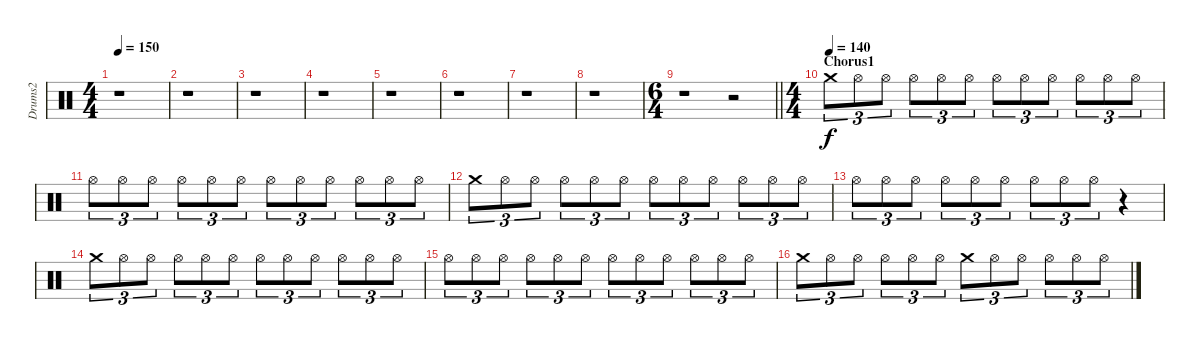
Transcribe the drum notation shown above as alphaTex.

\track ("Drums2" "Drums2") {instrument percussion}
\staff {score}
\articulation defaults
\ts (4 4)
\tempo 150
\clef neutral
\ks c
r.1{dy f} |
r.1 |
r.1 |
r.1 |
r.1 |
r.1 |
r.1 |
r.1 |
\ts (6 4)
\barLineRight lightlight
r.1 r.2 |
\ts (4 4)
\section ("" "Chorus1")
\tempo (140)
"Crash medium (hit)".8{tu (3 2)} "Hi-Hat (open)".8{tu (3 2)} "Hi-Hat (open)".8{tu (3 2)} "Hi-Hat (open)".8{tu (3 2)} "Hi-Hat (open)".8{tu (3 2)} "Hi-Hat (open)".8{tu (3 2)} "Hi-Hat (open)".8{tu (3 2)} "Hi-Hat (open)".8{tu (3 2)} "Hi-Hat (open)".8{tu (3 2)} "Hi-Hat (open)".8{tu (3 2)} "Hi-Hat (open)".8{tu (3 2)} "Hi-Hat (open)".8{tu (3 2)} |
"Hi-Hat (open)".8{tu (3 2)} "Hi-Hat (open)".8{tu (3 2)} "Hi-Hat (open)".8{tu (3 2)} "Hi-Hat (open)".8{tu (3 2)} "Hi-Hat (open)".8{tu (3 2)} "Hi-Hat (open)".8{tu (3 2)} "Hi-Hat (open)".8{tu (3 2)} "Hi-Hat (open)".8{tu (3 2)} "Hi-Hat (open)".8{tu (3 2)} "Hi-Hat (open)".8{tu (3 2)} "Hi-Hat (open)".8{tu (3 2)} "Hi-Hat (open)".8{tu (3 2)} |
"Crash medium (hit)".8{tu (3 2)} "Hi-Hat (open)".8{tu (3 2)} "Hi-Hat (open)".8{tu (3 2)} "Hi-Hat (open)".8{tu (3 2)} "Hi-Hat (open)".8{tu (3 2)} "Hi-Hat (open)".8{tu (3 2)} "Hi-Hat (open)".8{tu (3 2)} "Hi-Hat (open)".8{tu (3 2)} "Hi-Hat (open)".8{tu (3 2)} "Hi-Hat (open)".8{tu (3 2)} "Hi-Hat (open)".8{tu (3 2)} "Hi-Hat (open)".8{tu (3 2)} |
"Hi-Hat (open)".8{tu (3 2)} "Hi-Hat (open)".8{tu (3 2)} "Hi-Hat (open)".8{tu (3 2)} "Hi-Hat (open)".8{tu (3 2)} "Hi-Hat (open)".8{tu (3 2)} "Hi-Hat (open)".8{tu (3 2)} "Hi-Hat (open)".8{tu (3 2)} "Hi-Hat (open)".8{tu (3 2)} "Hi-Hat (open)".8{tu (3 2)} r.4 |
"Crash medium (hit)".8{tu (3 2)} "Hi-Hat (open)".8{tu (3 2)} "Hi-Hat (open)".8{tu (3 2)} "Hi-Hat (open)".8{tu (3 2)} "Hi-Hat (open)".8{tu (3 2)} "Hi-Hat (open)".8{tu (3 2)} "Hi-Hat (open)".8{tu (3 2)} "Hi-Hat (open)".8{tu (3 2)} "Hi-Hat (open)".8{tu (3 2)} "Hi-Hat (open)".8{tu (3 2)} "Hi-Hat (open)".8{tu (3 2)} "Hi-Hat (open)".8{tu (3 2)} |
"Hi-Hat (open)".8{tu (3 2)} "Hi-Hat (open)".8{tu (3 2)} "Hi-Hat (open)".8{tu (3 2)} "Hi-Hat (open)".8{tu (3 2)} "Hi-Hat (open)".8{tu (3 2)} "Hi-Hat (open)".8{tu (3 2)} "Hi-Hat (open)".8{tu (3 2)} "Hi-Hat (open)".8{tu (3 2)} "Hi-Hat (open)".8{tu (3 2)} "Hi-Hat (open)".8{tu (3 2)} "Hi-Hat (open)".8{tu (3 2)} "Hi-Hat (open)".8{tu (3 2)} |
"Crash medium (hit)".8{tu (3 2)} "Hi-Hat (open)".8{tu (3 2)} "Hi-Hat (open)".8{tu (3 2)} "Hi-Hat (open)".8{tu (3 2)} "Hi-Hat (open)".8{tu (3 2)} "Hi-Hat (open)".8{tu (3 2)} "Crash medium (hit)".8{tu (3 2)} "Hi-Hat (open)".8{tu (3 2)} "Hi-Hat (open)".8{tu (3 2)} "Hi-Hat (open)".8{tu (3 2)} "Hi-Hat (open)".8{tu (3 2)} "Hi-Hat (open)".8{tu (3 2)}
